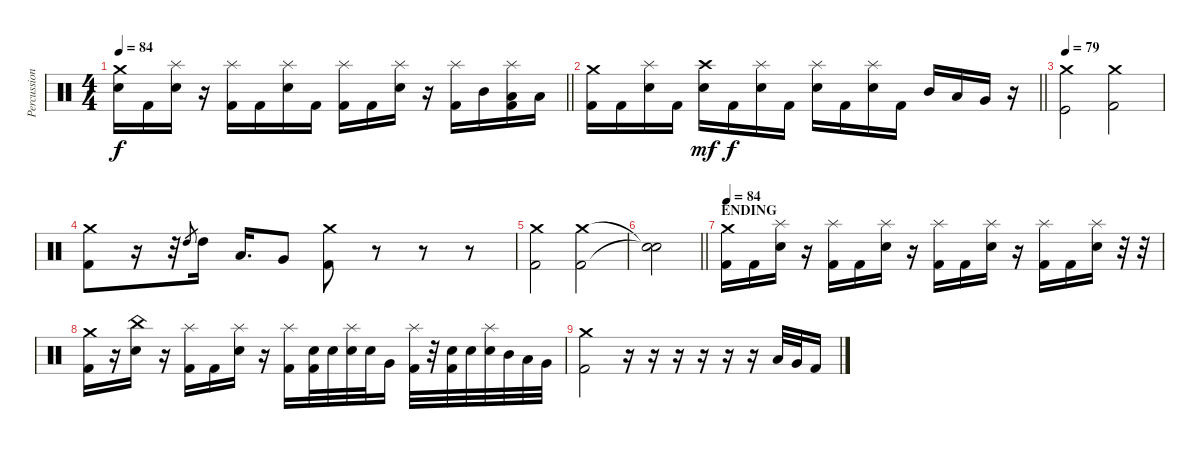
\track ("Percussion" "Percussion") {instrument percussion}
\staff {score}
\articulation defaults
\ts (4 4)
\tempo 84
\clef neutral
\barLineRight lightlight
\ks c
("Crash medium (hit)" "Electric Snare (hit)").16{dy f} "Kick (hit) 2".16 ("Splash (hit)" "Electric Snare (hit)").16 r.16 ("Splash (hit)" "Kick (hit) 2").16 "Kick (hit) 2".16 ("Splash (hit)" "Electric Snare (hit)").16 "Kick (hit) 2".16 ("Splash (hit)" "Kick (hit) 2").16 "Kick (hit) 2".16 ("Splash (hit)" "Electric Snare (hit)").16 r.16 ("Splash (hit)" "Kick (hit) 2").16 "Mid Tom (hit)".16 ("Splash (hit)" "Low Tom (hit)" "Kick (hit) 2").16 "Low Floor Tom (hit)".16 |
\section ("" "")
\barLineRight lightlight
("Crash medium (hit)" "Kick (hit) 2").16 "Kick (hit) 2".16 ("Splash (hit)" "Electric Snare (hit)").16 "Kick (hit) 2".16 ("Crash high (hit)" "Electric Snare (hit)").16{dy mf} "Kick (hit) 2".16{dy f} ("Splash (hit)" "Electric Snare (hit)").16 "Kick (hit) 2".16 ("Splash (hit)" "Electric Snare (hit)").16 "Kick (hit) 2".16 ("Splash (hit)" "Electric Snare (hit)").16 "Kick (hit) 2".16 "Mid Tom (hit)".16 "Low Tom (hit)".16 "Very Low Tom (hit)".16 r.16 |
\section ("" "")
\tempo 79
("Crash medium (hit)" "Kick (hit)").2 ("Crash medium (hit)" "Kick (hit) 2").2 |
("Crash medium (hit)" "Kick (hit) 2").8 r.16 r.32 "High Tom (hit)".8{gr} "High Tom (hit)".16 "Low Tom (hit)".16{d} "Very Low Tom (hit)".8 ("Crash medium (hit)" "Kick (hit) 2").8 r.8 r.8 r.8 |
("Crash medium (hit)" "Kick (hit) 2").2 ("Crash medium (hit)" "Kick (hit) 2").2 |
\barLineRight lightlight
("Snare (hit)"{t} "Snare (hit)"{t}).2 |
\section ("" "ENDING")
\tempo 84
("Crash medium (hit)" "Kick (hit) 2").16 "Kick (hit) 2".16 ("Splash (hit)" "Electric Snare (hit)").16 r.16 ("Splash (hit)" "Kick (hit) 2").16 "Kick (hit) 2".16 ("Splash (hit)" "Electric Snare (hit)").16 r.16 ("Splash (hit)" "Kick (hit) 2").16 "Kick (hit) 2".16 ("Splash (hit)" "Electric Snare (hit)").16 r.16 ("Splash (hit)" "Kick (hit) 2").16 "Kick (hit) 2".16 ("Splash (hit)" "Electric Snare (hit)").16 r.32 r.32 |
("Crash medium (hit)" "Kick (hit) 2").16 r.16 ("China (hit)" "Electric Snare (hit)").16 r.16 ("Splash (hit)" "Kick (hit) 2").16 "Kick (hit) 2".16 ("Splash (hit)" "Electric Snare (hit)").16 r.16 ("Splash (hit)" "Kick (hit) 2").16 ("Electric Snare (hit)" "Kick (hit) 2").32 "Electric Snare (hit)".32 ("Splash (hit)" "Electric Snare (hit)").32 "Electric Snare (hit)".32 "Very Low Tom (hit)".16 ("Splash (hit)" "Kick (hit) 2").32 r.32 ("Electric Snare (hit)" "Kick (hit) 2").32 "Electric Snare (hit)".32 ("Splash (hit)" "Electric Snare (hit)").32 "Mid Tom (hit)".32 "Low Tom (hit)".32 "Very Low Tom (hit)".32 |
("Crash medium (hit)" "Kick (hit) 2").2 r.16 r.16 r.16 r.16 r.16 r.16 "Low Tom (hit)".32 "Very Low Tom (hit)".32 "Kick (hit) 2".16
